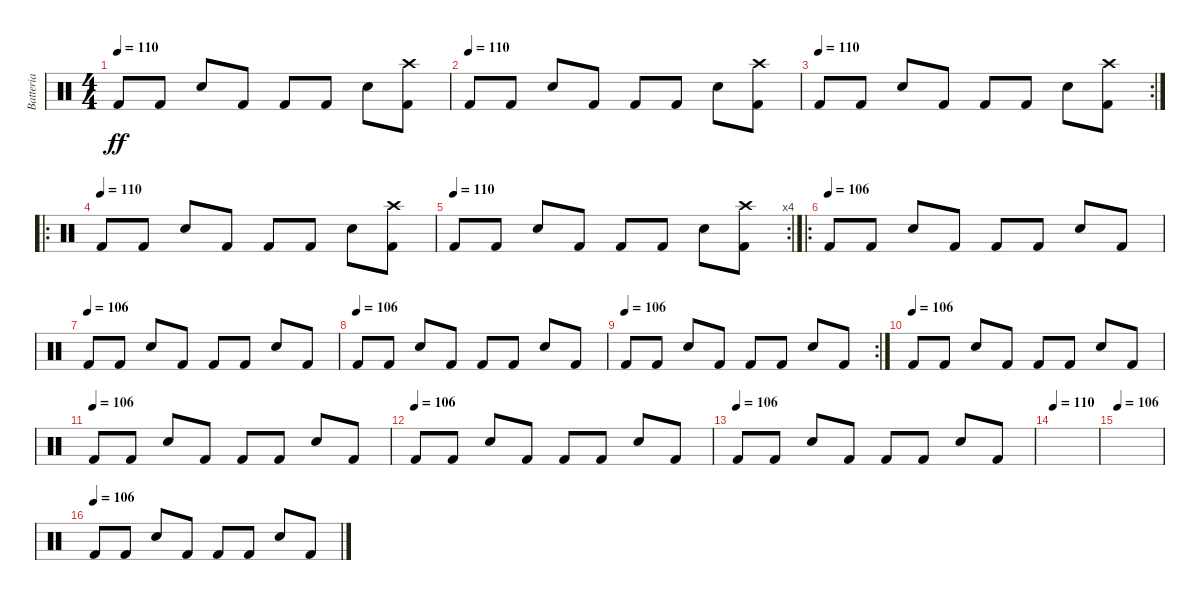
\track ("Batteria" "Batteria") {instrument percussion}
\staff {score}
\articulation defaults
\ts (4 4)
\tempo 110
\clef neutral
\ks c "Kick (hit) 2".8{dy ff} "Kick (hit) 2".8 "Snare (hit) 2".8 "Kick (hit) 2".8 "Kick (hit) 2".8 "Kick (hit) 2".8 "Snare (hit) 2".8
("Crash high (hit)" "Kick (hit) 2").8 |
\tempo (110)
"Kick (hit) 2".8 "Kick (hit) 2".8 "Snare (hit) 2".8 "Kick (hit) 2".8 "Kick (hit) 2".8 "Kick (hit) 2".8 "Snare (hit) 2".8 ("Crash high (hit)" "Kick (hit) 2").8 |
\rc 2
\tempo (110)
"Kick (hit) 2".8 "Kick (hit) 2".8 "Snare (hit) 2".8 "Kick (hit) 2".8 "Kick (hit) 2".8 "Kick (hit) 2".8 "Snare (hit) 2".8 ("Crash high (hit)" "Kick (hit) 2").8 |
\ro
\tempo (110)
"Kick (hit) 2".8 "Kick (hit) 2".8 "Snare (hit) 2".8 "Kick (hit) 2".8 "Kick (hit) 2".8 "Kick (hit) 2".8 "Snare (hit) 2".8 ("Crash high (hit)" "Kick (hit) 2").8 |
\rc 4
\tempo (110)
"Kick (hit) 2".8 "Kick (hit) 2".8 "Snare (hit) 2".8 "Kick (hit) 2".8 "Kick (hit) 2".8 "Kick (hit) 2".8 "Snare (hit) 2".8 ("Crash high (hit)" "Kick (hit) 2").8 |
\ro
\tempo 110
\tempo (106)
"Kick (hit) 2".8 "Kick (hit) 2".8 "Snare (hit) 2".8 "Kick (hit) 2".8 "Kick (hit) 2".8 "Kick (hit) 2".8 "Snare (hit) 2".8 "Kick (hit) 2".8 |
\tempo 110
\tempo (106)
"Kick (hit) 2".8 "Kick (hit) 2".8 "Snare (hit) 2".8 "Kick (hit) 2".8 "Kick (hit) 2".8 "Kick (hit) 2".8 "Snare (hit) 2".8 "Kick (hit) 2".8 |
\tempo 110
\tempo (106)
"Kick (hit) 2".8 "Kick (hit) 2".8 "Snare (hit) 2".8 "Kick (hit) 2".8 "Kick (hit) 2".8 "Kick (hit) 2".8 "Snare (hit) 2".8 "Kick (hit) 2".8 |
\rc 2
\tempo 110
\tempo (106)
"Kick (hit) 2".8 "Kick (hit) 2".8 "Snare (hit) 2".8 "Kick (hit) 2".8 "Kick (hit) 2".8 "Kick (hit) 2".8 "Snare (hit) 2".8 "Kick (hit) 2".8 |
\tempo 110
\tempo (106)
"Kick (hit) 2".8 "Kick (hit) 2".8 "Snare (hit) 2".8 "Kick (hit) 2".8 "Kick (hit) 2".8 "Kick (hit) 2".8 "Snare (hit) 2".8 "Kick (hit) 2".8 |
\tempo 110
\tempo (106)
"Kick (hit) 2".8 "Kick (hit) 2".8 "Snare (hit) 2".8 "Kick (hit) 2".8 "Kick (hit) 2".8 "Kick (hit) 2".8 "Snare (hit) 2".8 "Kick (hit) 2".8 |
\tempo 110
\tempo (106)
"Kick (hit) 2".8 "Kick (hit) 2".8 "Snare (hit) 2".8 "Kick (hit) 2".8 "Kick (hit) 2".8 "Kick (hit) 2".8 "Snare (hit) 2".8 "Kick (hit) 2".8 |
\tempo 110
\tempo (106)
"Kick (hit) 2".8 "Kick (hit) 2".8 "Snare (hit) 2".8 "Kick (hit) 2".8 "Kick (hit) 2".8 "Kick (hit) 2".8 "Snare (hit) 2".8 "Kick (hit) 2".8 |
\tempo 106
\tempo 110
|
\tempo 106
|
\tempo 110
\tempo (106)
"Kick (hit) 2".8 "Kick (hit) 2".8 "Snare (hit) 2".8 "Kick (hit) 2".8 "Kick (hit) 2".8 "Kick (hit) 2".8 "Snare (hit) 2".8 "Kick (hit) 2".8
